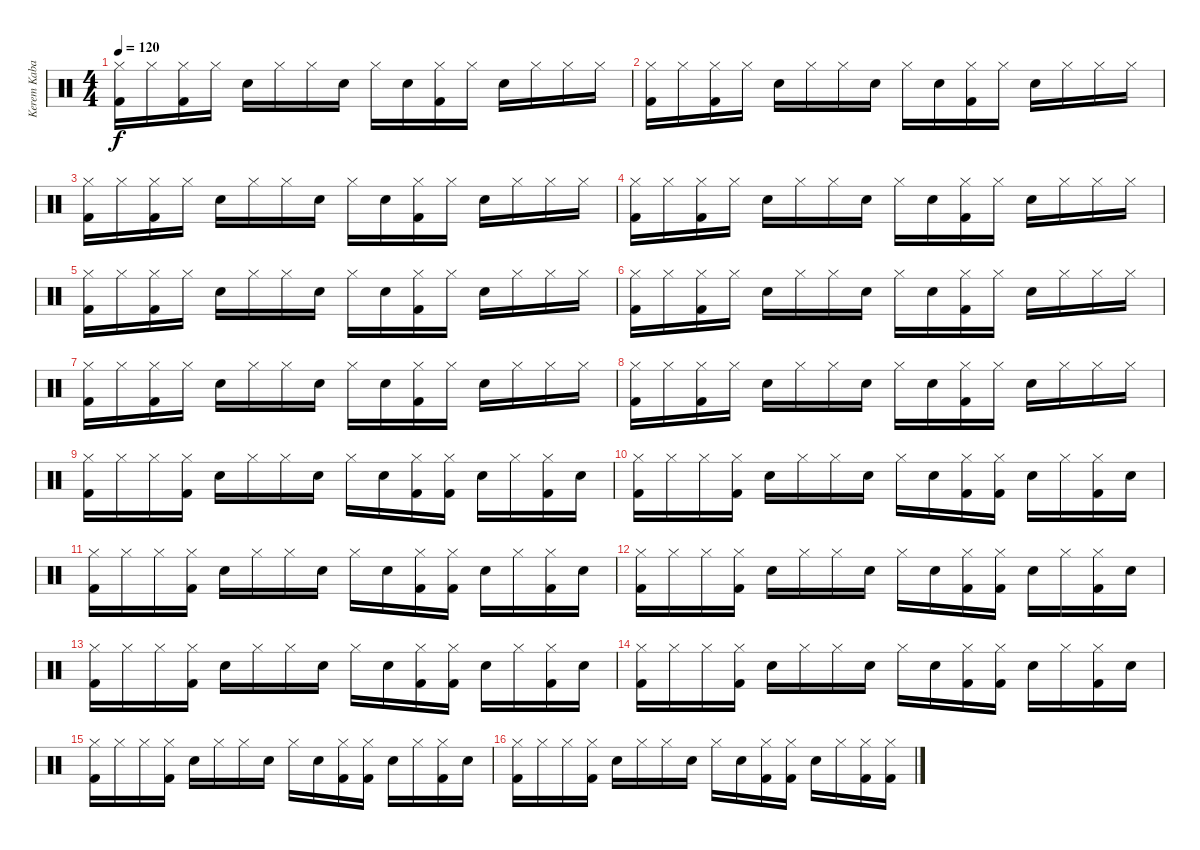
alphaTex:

\track ("Kerem Kabadayı" "Kerem Kaba") {instrument percussion}
\staff {score}
\articulation defaults
\ts (4 4)
\tempo 120
\clef neutral
\ks c
("Hi-Hat (closed)" "Kick (hit) 2").16{dy f} "Hi-Hat (closed)".16 ("Hi-Hat (closed)" "Kick (hit) 2").16 "Hi-Hat (closed)".16 "Electric Snare (hit)".16 "Hi-Hat (closed)".16 "Hi-Hat (closed)".16 "Electric Snare (hit)".16 "Hi-Hat (closed)".16 "Electric Snare (hit)".16 ("Hi-Hat (closed)" "Kick (hit) 2").16 "Hi-Hat (closed)".16 "Electric Snare (hit)".16 "Hi-Hat (closed)".16 "Hi-Hat (closed)".16 "Hi-Hat (closed)".16 |
("Hi-Hat (closed)" "Kick (hit) 2").16 "Hi-Hat (closed)".16 ("Hi-Hat (closed)" "Kick (hit) 2").16 "Hi-Hat (closed)".16 "Electric Snare (hit)".16 "Hi-Hat (closed)".16 "Hi-Hat (closed)".16 "Electric Snare (hit)".16 "Hi-Hat (closed)".16 "Electric Snare (hit)".16 ("Hi-Hat (closed)" "Kick (hit) 2").16 "Hi-Hat (closed)".16 "Electric Snare (hit)".16 "Hi-Hat (closed)".16 "Hi-Hat (closed)".16 "Hi-Hat (closed)".16 |
("Hi-Hat (closed)" "Kick (hit) 2").16 "Hi-Hat (closed)".16 ("Hi-Hat (closed)" "Kick (hit) 2").16 "Hi-Hat (closed)".16 "Electric Snare (hit)".16 "Hi-Hat (closed)".16 "Hi-Hat (closed)".16 "Electric Snare (hit)".16 "Hi-Hat (closed)".16 "Electric Snare (hit)".16 ("Hi-Hat (closed)" "Kick (hit) 2").16 "Hi-Hat (closed)".16 "Electric Snare (hit)".16 "Hi-Hat (closed)".16 "Hi-Hat (closed)".16 "Hi-Hat (closed)".16 |
("Hi-Hat (closed)" "Kick (hit) 2").16 "Hi-Hat (closed)".16 ("Hi-Hat (closed)" "Kick (hit) 2").16 "Hi-Hat (closed)".16 "Electric Snare (hit)".16 "Hi-Hat (closed)".16 "Hi-Hat (closed)".16 "Electric Snare (hit)".16 "Hi-Hat (closed)".16 "Electric Snare (hit)".16 ("Hi-Hat (closed)" "Kick (hit) 2").16 "Hi-Hat (closed)".16 "Electric Snare (hit)".16 "Hi-Hat (closed)".16 "Hi-Hat (closed)".16 "Hi-Hat (closed)".16 |
("Hi-Hat (closed)" "Kick (hit) 2").16 "Hi-Hat (closed)".16 ("Hi-Hat (closed)" "Kick (hit) 2").16 "Hi-Hat (closed)".16 "Electric Snare (hit)".16 "Hi-Hat (closed)".16 "Hi-Hat (closed)".16 "Electric Snare (hit)".16 "Hi-Hat (closed)".16 "Electric Snare (hit)".16 ("Hi-Hat (closed)" "Kick (hit) 2").16 "Hi-Hat (closed)".16 "Electric Snare (hit)".16 "Hi-Hat (closed)".16 "Hi-Hat (closed)".16 "Hi-Hat (closed)".16 |
("Hi-Hat (closed)" "Kick (hit) 2").16 "Hi-Hat (closed)".16 ("Hi-Hat (closed)" "Kick (hit) 2").16 "Hi-Hat (closed)".16 "Electric Snare (hit)".16 "Hi-Hat (closed)".16 "Hi-Hat (closed)".16 "Electric Snare (hit)".16 "Hi-Hat (closed)".16 "Electric Snare (hit)".16 ("Hi-Hat (closed)" "Kick (hit) 2").16 "Hi-Hat (closed)".16 "Electric Snare (hit)".16 "Hi-Hat (closed)".16 "Hi-Hat (closed)".16 "Hi-Hat (closed)".16 |
("Hi-Hat (closed)" "Kick (hit) 2").16 "Hi-Hat (closed)".16 ("Hi-Hat (closed)" "Kick (hit) 2").16 "Hi-Hat (closed)".16 "Electric Snare (hit)".16 "Hi-Hat (closed)".16 "Hi-Hat (closed)".16 "Electric Snare (hit)".16 "Hi-Hat (closed)".16 "Electric Snare (hit)".16 ("Hi-Hat (closed)" "Kick (hit) 2").16 "Hi-Hat (closed)".16 "Electric Snare (hit)".16 "Hi-Hat (closed)".16 "Hi-Hat (closed)".16 "Hi-Hat (closed)".16 |
("Hi-Hat (closed)" "Kick (hit) 2").16 "Hi-Hat (closed)".16 ("Hi-Hat (closed)" "Kick (hit) 2").16 "Hi-Hat (closed)".16 "Electric Snare (hit)".16 "Hi-Hat (closed)".16 "Hi-Hat (closed)".16 "Electric Snare (hit)".16 "Hi-Hat (closed)".16 "Electric Snare (hit)".16 ("Hi-Hat (closed)" "Kick (hit) 2").16 "Hi-Hat (closed)".16 "Electric Snare (hit)".16 "Hi-Hat (closed)".16 "Hi-Hat (closed)".16 "Hi-Hat (closed)".16 |
("Hi-Hat (closed)" "Kick (hit) 2").16 "Hi-Hat (closed)".16 "Hi-Hat (closed)".16 ("Hi-Hat (closed)" "Kick (hit) 2").16 "Electric Snare (hit)".16 "Hi-Hat (closed)".16 "Hi-Hat (closed)".16 "Electric Snare (hit)".16 "Hi-Hat (closed)".16 "Electric Snare (hit)".16 ("Hi-Hat (closed)" "Kick (hit) 2").16 ("Hi-Hat (closed)" "Kick (hit) 2").16 "Electric Snare (hit)".16 "Hi-Hat (closed)".16 ("Hi-Hat (closed)" "Kick (hit) 2").16 "Electric Snare (hit)".16 |
("Hi-Hat (closed)" "Kick (hit) 2").16 "Hi-Hat (closed)".16 "Hi-Hat (closed)".16 ("Hi-Hat (closed)" "Kick (hit) 2").16 "Electric Snare (hit)".16 "Hi-Hat (closed)".16 "Hi-Hat (closed)".16 "Electric Snare (hit)".16 "Hi-Hat (closed)".16 "Electric Snare (hit)".16 ("Hi-Hat (closed)" "Kick (hit) 2").16 ("Hi-Hat (closed)" "Kick (hit) 2").16 "Electric Snare (hit)".16 "Hi-Hat (closed)".16 ("Hi-Hat (closed)" "Kick (hit) 2").16 "Electric Snare (hit)".16 |
("Hi-Hat (closed)" "Kick (hit) 2").16 "Hi-Hat (closed)".16 "Hi-Hat (closed)".16 ("Hi-Hat (closed)" "Kick (hit) 2").16 "Electric Snare (hit)".16 "Hi-Hat (closed)".16 "Hi-Hat (closed)".16 "Electric Snare (hit)".16 "Hi-Hat (closed)".16 "Electric Snare (hit)".16 ("Hi-Hat (closed)" "Kick (hit) 2").16 ("Hi-Hat (closed)" "Kick (hit) 2").16 "Electric Snare (hit)".16 "Hi-Hat (closed)".16 ("Hi-Hat (closed)" "Kick (hit) 2").16 "Electric Snare (hit)".16 |
("Hi-Hat (closed)" "Kick (hit) 2").16 "Hi-Hat (closed)".16 "Hi-Hat (closed)".16 ("Hi-Hat (closed)" "Kick (hit) 2").16 "Electric Snare (hit)".16 "Hi-Hat (closed)".16 "Hi-Hat (closed)".16 "Electric Snare (hit)".16 "Hi-Hat (closed)".16 "Electric Snare (hit)".16 ("Hi-Hat (closed)" "Kick (hit) 2").16 ("Hi-Hat (closed)" "Kick (hit) 2").16 "Electric Snare (hit)".16 "Hi-Hat (closed)".16 ("Hi-Hat (closed)" "Kick (hit) 2").16 "Electric Snare (hit)".16 |
("Hi-Hat (closed)" "Kick (hit) 2").16 "Hi-Hat (closed)".16 "Hi-Hat (closed)".16 ("Hi-Hat (closed)" "Kick (hit) 2").16 "Electric Snare (hit)".16 "Hi-Hat (closed)".16 "Hi-Hat (closed)".16 "Electric Snare (hit)".16 "Hi-Hat (closed)".16 "Electric Snare (hit)".16 ("Hi-Hat (closed)" "Kick (hit) 2").16 ("Hi-Hat (closed)" "Kick (hit) 2").16 "Electric Snare (hit)".16 "Hi-Hat (closed)".16 ("Hi-Hat (closed)" "Kick (hit) 2").16 "Electric Snare (hit)".16 |
("Hi-Hat (closed)" "Kick (hit) 2").16 "Hi-Hat (closed)".16 "Hi-Hat (closed)".16 ("Hi-Hat (closed)" "Kick (hit) 2").16 "Electric Snare (hit)".16 "Hi-Hat (closed)".16 "Hi-Hat (closed)".16 "Electric Snare (hit)".16 "Hi-Hat (closed)".16 "Electric Snare (hit)".16 ("Hi-Hat (closed)" "Kick (hit) 2").16 ("Hi-Hat (closed)" "Kick (hit) 2").16 "Electric Snare (hit)".16 "Hi-Hat (closed)".16 ("Hi-Hat (closed)" "Kick (hit) 2").16 "Electric Snare (hit)".16 |
("Hi-Hat (closed)" "Kick (hit) 2").16 "Hi-Hat (closed)".16 "Hi-Hat (closed)".16 ("Hi-Hat (closed)" "Kick (hit) 2").16 "Electric Snare (hit)".16 "Hi-Hat (closed)".16 "Hi-Hat (closed)".16 "Electric Snare (hit)".16 "Hi-Hat (closed)".16 "Electric Snare (hit)".16 ("Hi-Hat (closed)" "Kick (hit) 2").16 ("Hi-Hat (closed)" "Kick (hit) 2").16 "Electric Snare (hit)".16 "Hi-Hat (closed)".16 ("Hi-Hat (closed)" "Kick (hit) 2").16 "Electric Snare (hit)".16 |
("Hi-Hat (closed)" "Kick (hit) 2").16 "Hi-Hat (closed)".16 "Hi-Hat (closed)".16 ("Hi-Hat (closed)" "Kick (hit) 2").16 "Electric Snare (hit)".16 "Hi-Hat (closed)".16 "Hi-Hat (closed)".16 "Electric Snare (hit)".16 "Hi-Hat (closed)".16 "Electric Snare (hit)".16 ("Hi-Hat (closed)" "Kick (hit) 2").16 ("Hi-Hat (closed)" "Kick (hit) 2").16 "Electric Snare (hit)".16 "Hi-Hat (closed)".16 ("Hi-Hat (closed)" "Kick (hit) 2").16 ("Hi-Hat (closed)" "Kick (hit) 2").16
